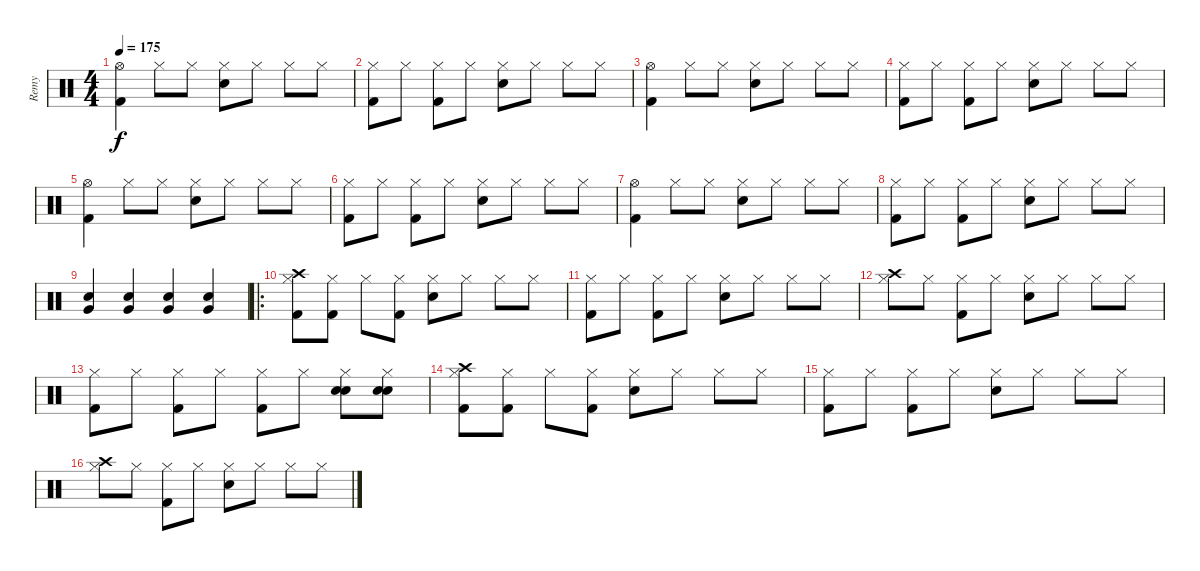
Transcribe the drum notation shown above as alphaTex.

\track ("Remy" "Remy") {instrument percussion}
\staff {score}
\articulation defaults
\ts (4 4)
\tempo 175
\clef neutral
\ks c
("Hi-Hat (open)" "Kick (hit) 2").4{dy f} "Hi-Hat (closed)".8 "Hi-Hat (closed)".8 ("Snare (hit) 2" "Hi-Hat (closed)").8 "Hi-Hat (closed)".8 "Hi-Hat (closed)".8 "Hi-Hat (closed)".8 |
("Hi-Hat (closed)" "Kick (hit) 2").8 "Hi-Hat (closed)".8 ("Hi-Hat (closed)" "Kick (hit) 2").8 "Hi-Hat (closed)".8 ("Snare (hit) 2" "Hi-Hat (closed)").8 "Hi-Hat (closed)".8 "Hi-Hat (closed)".8 "Hi-Hat (closed)".8 |
("Hi-Hat (open)" "Kick (hit) 2").4 "Hi-Hat (closed)".8 "Hi-Hat (closed)".8 ("Snare (hit) 2" "Hi-Hat (closed)").8 "Hi-Hat (closed)".8 "Hi-Hat (closed)".8 "Hi-Hat (closed)".8 |
("Hi-Hat (closed)" "Kick (hit) 2").8 "Hi-Hat (closed)".8 ("Hi-Hat (closed)" "Kick (hit) 2").8 "Hi-Hat (closed)".8 ("Snare (hit) 2" "Hi-Hat (closed)").8 "Hi-Hat (closed)".8 "Hi-Hat (closed)".8 "Hi-Hat (closed)".8 |
("Hi-Hat (open)" "Kick (hit) 2").4 "Hi-Hat (closed)".8 "Hi-Hat (closed)".8 ("Snare (hit) 2" "Hi-Hat (closed)").8 "Hi-Hat (closed)".8 "Hi-Hat (closed)".8 "Hi-Hat (closed)".8 |
("Hi-Hat (closed)" "Kick (hit) 2").8 "Hi-Hat (closed)".8 ("Hi-Hat (closed)" "Kick (hit) 2").8 "Hi-Hat (closed)".8 ("Snare (hit) 2" "Hi-Hat (closed)").8 "Hi-Hat (closed)".8 "Hi-Hat (closed)".8 "Hi-Hat (closed)".8 |
("Hi-Hat (open)" "Kick (hit) 2").4 "Hi-Hat (closed)".8 "Hi-Hat (closed)".8 ("Snare (hit) 2" "Hi-Hat (closed)").8 "Hi-Hat (closed)".8 "Hi-Hat (closed)".8 "Hi-Hat (closed)".8 |
("Hi-Hat (closed)" "Kick (hit) 2").8 "Hi-Hat (closed)".8 ("Hi-Hat (closed)" "Kick (hit) 2").8 "Hi-Hat (closed)".8 ("Snare (hit) 2" "Hi-Hat (closed)").8 "Hi-Hat (closed)".8 "Hi-Hat (closed)".8 "Hi-Hat (closed)".8 |
("Snare (hit) 2" "Very Low Tom (hit)").4 ("Snare (hit) 2" "Very Low Tom (hit)").4 ("Snare (hit) 2" "Very Low Tom (hit)").4 ("Snare (hit) 2" "Very Low Tom (hit)").4 |
\ro
("Hi-Hat (closed)" "Crash high (hit)" "Kick (hit) 2").8 ("Hi-Hat (closed)" "Kick (hit) 2").8 "Hi-Hat (closed)".8 ("Hi-Hat (closed)" "Kick (hit) 2").8 ("Snare (hit) 2" "Hi-Hat (closed)").8 "Hi-Hat (closed)".8 "Hi-Hat (closed)".8 "Hi-Hat (closed)".8 |
("Hi-Hat (closed)" "Kick (hit) 2").8 "Hi-Hat (closed)".8 ("Hi-Hat (closed)" "Kick (hit) 2").8 "Hi-Hat (closed)".8 ("Snare (hit) 2" "Hi-Hat (closed)").8 "Hi-Hat (closed)".8 "Hi-Hat (closed)".8 "Hi-Hat (closed)".8 |
("Hi-Hat (closed)" "Crash high (hit)").8 "Hi-Hat (closed)".8 ("Hi-Hat (closed)" "Kick (hit) 2").8 "Hi-Hat (closed)".8 ("Snare (hit) 2" "Hi-Hat (closed)").8 "Hi-Hat (closed)".8 "Hi-Hat (closed)".8 "Hi-Hat (closed)".8 |
("Hi-Hat (closed)" "Kick (hit) 2").8 "Hi-Hat (closed)".8 ("Hi-Hat (closed)" "Kick (hit) 2").8 "Hi-Hat (closed)".8 ("Hi-Hat (closed)" "Kick (hit) 2").8 "Hi-Hat (closed)".8 ("Snare (hit) 2" "Hi-Hat (closed)" "Snare (hit) 2").8 ("Snare (hit) 2" "Hi-Hat (closed)" "Snare (hit) 2").8 |
("Hi-Hat (closed)" "Crash high (hit)" "Kick (hit) 2").8 ("Hi-Hat (closed)" "Kick (hit) 2").8 "Hi-Hat (closed)".8 ("Hi-Hat (closed)" "Kick (hit) 2").8 ("Snare (hit) 2" "Hi-Hat (closed)").8 "Hi-Hat (closed)".8 "Hi-Hat (closed)".8 "Hi-Hat (closed)".8 |
("Hi-Hat (closed)" "Kick (hit) 2").8 "Hi-Hat (closed)".8 ("Hi-Hat (closed)" "Kick (hit) 2").8 "Hi-Hat (closed)".8 ("Snare (hit) 2" "Hi-Hat (closed)").8 "Hi-Hat (closed)".8 "Hi-Hat (closed)".8 "Hi-Hat (closed)".8 |
("Hi-Hat (closed)" "Crash high (hit)").8 "Hi-Hat (closed)".8 ("Hi-Hat (closed)" "Kick (hit) 2").8 "Hi-Hat (closed)".8 ("Snare (hit) 2" "Hi-Hat (closed)").8 "Hi-Hat (closed)".8 "Hi-Hat (closed)".8 "Hi-Hat (closed)".8
